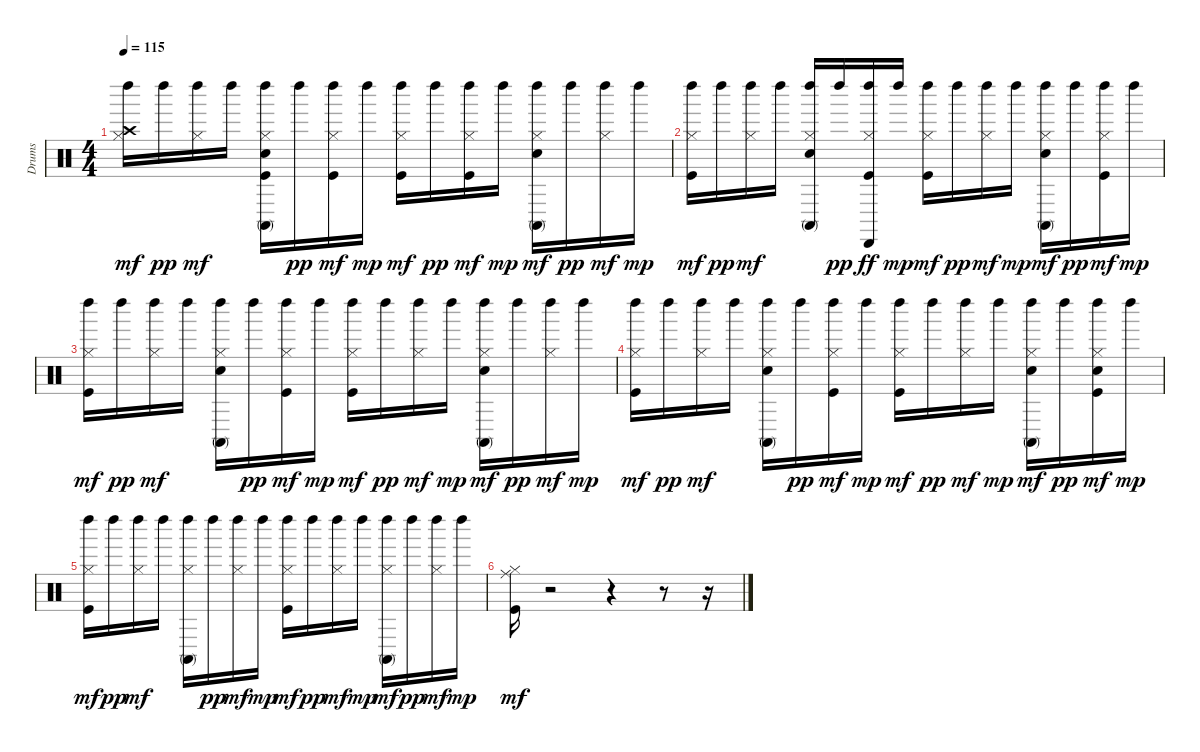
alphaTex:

\track ("Drums" "Drums") {instrument percussion}
\staff {score}
\articulation defaults
\ts (4 4)
\tempo 115
\clef neutral
\ks c
("Hi-Hat (closed)" "Crash high (hit)" "Left Maraca (hit)").16{dy mf} "Left Maraca (hit)".16{dy pp} ("Hi-Hat (closed)" "Left Maraca (hit)").16{dy mf} "Left Maraca (hit)".16 ("Kick (hit)" "Snare (hit) 2" "Hi-Hat (closed)" "Conga high (mute)" "Left Maraca (hit)").16 "Left Maraca (hit)".16{dy pp} ("Kick (hit)" "Hi-Hat (closed)" "Left Maraca (hit)").16{dy mf} "Left Maraca (hit)".16{dy mp} ("Kick (hit)" "Hi-Hat (closed)" "Left Maraca (hit)").16{dy mf} "Left Maraca (hit)".16{dy pp} ("Kick (hit)" "Hi-Hat (closed)" "Left Maraca (hit)").16{dy mf} "Left Maraca (hit)".16{dy mp} ("Snare (hit) 2" "Hi-Hat (closed)" "Conga high (mute)" "Left Maraca (hit)").16{dy mf} "Left Maraca (hit)".16{dy pp} ("Hi-Hat (closed)" "Left Maraca (hit)").16{dy mf} "Left Maraca (hit)".16{dy mp} |
("Kick (hit)" "Hi-Hat (closed)" "Left Maraca (hit)").16{dy mf} "Left Maraca (hit)".16{dy pp} ("Hi-Hat (closed)" "Left Maraca (hit)").16{dy mf} "Left Maraca (hit)".16 ("Snare (hit) 2" "Hi-Hat (closed)" "Conga high (mute)" "Left Maraca (hit)").16 "Left Maraca (hit)".16{dy pp} ("Kick (hit)" "Hi-Hat (closed)" "Left Maraca (hit)" "Cabasa (hit)").16{dy ff} "Left Maraca (hit)".16{dy mp} ("Kick (hit)" "Hi-Hat (closed)" "Left Maraca (hit)").16{dy mf} "Left Maraca (hit)".16{dy pp} ("Hi-Hat (closed)" "Left Maraca (hit)").16{dy mf} "Left Maraca (hit)".16{dy mp} ("Snare (hit) 2" "Hi-Hat (closed)" "Conga high (mute)" "Left Maraca (hit)").16{dy mf} "Left Maraca (hit)".16{dy pp} ("Kick (hit)" "Hi-Hat (closed)" "Left Maraca (hit)").16{dy mf} "Left Maraca (hit)".16{dy mp} |
("Kick (hit)" "Hi-Hat (closed)" "Left Maraca (hit)").16{dy mf} "Left Maraca (hit)".16{dy pp} ("Hi-Hat (closed)" "Left Maraca (hit)").16{dy mf} "Left Maraca (hit)".16 ("Snare (hit) 2" "Hi-Hat (closed)" "Conga high (mute)" "Left Maraca (hit)").16 "Left Maraca (hit)".16{dy pp} ("Kick (hit)" "Hi-Hat (closed)" "Left Maraca (hit)").16{dy mf} "Left Maraca (hit)".16{dy mp} ("Kick (hit)" "Hi-Hat (closed)" "Left Maraca (hit)").16{dy mf} "Left Maraca (hit)".16{dy pp} ("Hi-Hat (closed)" "Left Maraca (hit)").16{dy mf} "Left Maraca (hit)".16{dy mp} ("Snare (hit) 2" "Hi-Hat (closed)" "Conga high (mute)" "Left Maraca (hit)").16{dy mf} "Left Maraca (hit)".16{dy pp} ("Hi-Hat (closed)" "Left Maraca (hit)").16{dy mf} "Left Maraca (hit)".16{dy mp} |
("Kick (hit)" "Hi-Hat (closed)" "Left Maraca (hit)").16{dy mf} "Left Maraca (hit)".16{dy pp} ("Hi-Hat (closed)" "Left Maraca (hit)").16{dy mf} "Left Maraca (hit)".16 ("Snare (hit) 2" "Hi-Hat (closed)" "Conga high (mute)" "Left Maraca (hit)").16 "Left Maraca (hit)".16{dy pp} ("Kick (hit)" "Hi-Hat (closed)" "Left Maraca (hit)").16{dy mf} "Left Maraca (hit)".16{dy mp} ("Kick (hit)" "Hi-Hat (closed)" "Left Maraca (hit)").16{dy mf} "Left Maraca (hit)".16{dy pp} ("Hi-Hat (closed)" "Left Maraca (hit)").16{dy mf} "Left Maraca (hit)".16{dy mp} ("Snare (hit) 2" "Hi-Hat (closed)" "Conga high (mute)" "Left Maraca (hit)").16{dy mf} "Left Maraca (hit)".16{dy pp} ("Kick (hit)" "Snare (hit) 2" "Hi-Hat (closed)" "Left Maraca (hit)").16{dy mf} "Left Maraca (hit)".16{dy mp} |
("Kick (hit)" "Hi-Hat (closed)" "Left Maraca (hit)").16{dy mf} "Left Maraca (hit)".16{dy pp} ("Hi-Hat (closed)" "Left Maraca (hit)").16{dy mf} "Left Maraca (hit)".16 ("Hi-Hat (closed)" "Conga high (mute)" "Left Maraca (hit)").16 "Left Maraca (hit)".16{dy pp} ("Hi-Hat (closed)" "Left Maraca (hit)").16{dy mf} "Left Maraca (hit)".16{dy mp} ("Kick (hit)" "Hi-Hat (closed)" "Left Maraca (hit)").16{dy mf} "Left Maraca (hit)".16{dy pp} ("Hi-Hat (closed)" "Left Maraca (hit)").16{dy mf} "Left Maraca (hit)".16{dy mp} ("Hi-Hat (closed)" "Conga high (mute)" "Left Maraca (hit)").16{dy mf} "Left Maraca (hit)".16{dy pp} ("Hi-Hat (closed)" "Left Maraca (hit)").16{dy mf} "Left Maraca (hit)".16{dy mp} |
("Kick (hit)" "Hi-Hat (closed)" "Ride (middle)").16{dy mf} r.2 r.4 r.8 r.16
